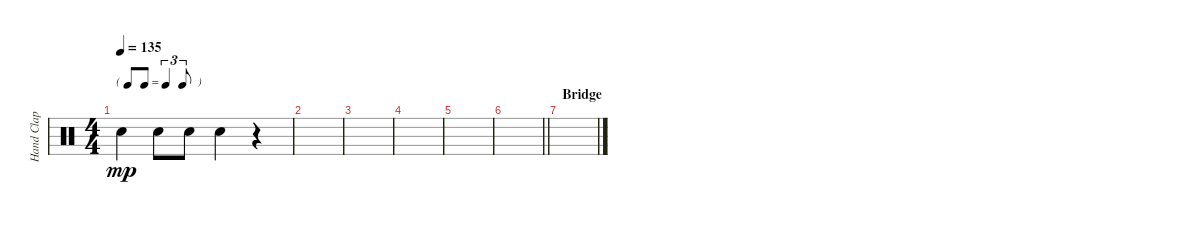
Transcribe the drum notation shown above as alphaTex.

\track ("Hand Clap" "Hand Clap") {instrument percussion}
\staff {score}
\articulation defaults
\ts (4 4)
\tf triplet8th
\tempo 135
\clef neutral
\ks c "Hand Clap (hit)".4{dy mp} "Hand Clap (hit)".8 "Hand Clap (hit)".8 "Hand Clap (hit)".4
r.4 |
|
|
|
|
\barLineRight lightlight
|
\section ("" "Bridge")
